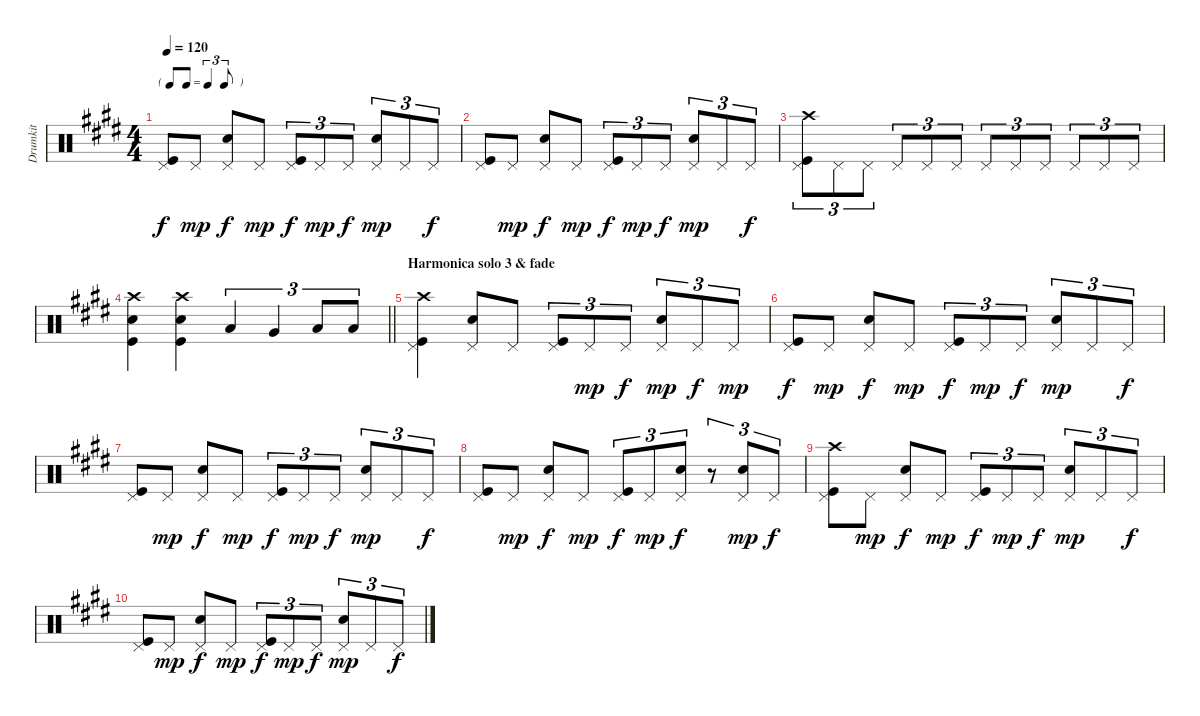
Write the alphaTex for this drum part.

\track ("Drumkit" "Drumkit") {instrument percussion}
\staff {score}
\articulation defaults
\ts (4 4)
\tf triplet8th
\tempo 120
\clef neutral
\ks e
("Pedal Hi-Hat (hit)" "Kick (hit)").8{dy f} "Pedal Hi-Hat (hit)".8{dy mp} ("Pedal Hi-Hat (hit)" "Snare (hit) 2").8{dy f} "Pedal Hi-Hat (hit)".8{dy mp} ("Pedal Hi-Hat (hit)" "Kick (hit)").8{tu (3 2) dy f} "Pedal Hi-Hat (hit)".8{tu (3 2) dy mp} "Pedal Hi-Hat (hit)".8{tu (3 2) dy f} ("Pedal Hi-Hat (hit)" "Snare (hit) 2").8{tu (3 2) dy mp} "Pedal Hi-Hat (hit)".8{tu (3 2)} "Pedal Hi-Hat (hit)".8{tu (3 2) dy f} |
("Pedal Hi-Hat (hit)" "Kick (hit)").8 "Pedal Hi-Hat (hit)".8{dy mp} ("Pedal Hi-Hat (hit)" "Snare (hit) 2").8{dy f} "Pedal Hi-Hat (hit)".8{dy mp} ("Pedal Hi-Hat (hit)" "Kick (hit)").8{tu (3 2) dy f} "Pedal Hi-Hat (hit)".8{tu (3 2) dy mp} "Pedal Hi-Hat (hit)".8{tu (3 2) dy f} ("Pedal Hi-Hat (hit)" "Snare (hit) 2").8{tu (3 2) dy mp} "Pedal Hi-Hat (hit)".8{tu (3 2)} "Pedal Hi-Hat (hit)".8{tu (3 2) dy f} |
("Crash high (hit)" "Pedal Hi-Hat (hit)" "Kick (hit)").8{tu (3 2)} "Pedal Hi-Hat (hit)".8{tu (3 2)} "Pedal Hi-Hat (hit)".8{tu (3 2)} "Pedal Hi-Hat (hit)".8{tu (3 2)} "Pedal Hi-Hat (hit)".8{tu (3 2)} "Pedal Hi-Hat (hit)".8{tu (3 2)} "Pedal Hi-Hat (hit)".8{tu (3 2)} "Pedal Hi-Hat (hit)".8{tu (3 2)} "Pedal Hi-Hat (hit)".8{tu (3 2)} "Pedal Hi-Hat (hit)".8{tu (3 2)} "Pedal Hi-Hat (hit)".8{tu (3 2)} "Pedal Hi-Hat (hit)".8{tu (3 2)} |
\barLineRight lightlight
("Crash high (hit)" "Snare (hit) 2" "Kick (hit)").4 ("Crash high (hit)" "Snare (hit) 2" "Kick (hit)").4 "Low Tom (hit)".4{tu (3 2)} "Very Low Tom (hit)".4{tu (3 2)} "Low Floor Tom (hit)".8{tu (3 2)} "Low Floor Tom (hit)".8{tu (3 2)} |
\section ("" "Harmonica solo 3 & fade")
("Crash high (hit)" "Pedal Hi-Hat (hit)" "Kick (hit)").4 ("Pedal Hi-Hat (hit)" "Snare (hit) 2").8 "Pedal Hi-Hat (hit)".8 ("Pedal Hi-Hat (hit)" "Kick (hit)").8{tu (3 2)} "Pedal Hi-Hat (hit)".8{tu (3 2) dy mp} "Pedal Hi-Hat (hit)".8{tu (3 2) dy f} ("Pedal Hi-Hat (hit)" "Snare (hit) 2").8{tu (3 2) dy mp} "Pedal Hi-Hat (hit)".8{tu (3 2) dy f} "Pedal Hi-Hat (hit)".8{tu (3 2) dy mp} |
("Pedal Hi-Hat (hit)" "Kick (hit)").8{dy f} "Pedal Hi-Hat (hit)".8{dy mp} ("Pedal Hi-Hat (hit)" "Snare (hit) 2").8{dy f} "Pedal Hi-Hat (hit)".8{dy mp} ("Pedal Hi-Hat (hit)" "Kick (hit)").8{tu (3 2) dy f} "Pedal Hi-Hat (hit)".8{tu (3 2) dy mp} "Pedal Hi-Hat (hit)".8{tu (3 2) dy f} ("Pedal Hi-Hat (hit)" "Snare (hit) 2").8{tu (3 2) dy mp} "Pedal Hi-Hat (hit)".8{tu (3 2)} "Pedal Hi-Hat (hit)".8{tu (3 2) dy f volume 10} |
("Pedal Hi-Hat (hit)" "Kick (hit)").8 "Pedal Hi-Hat (hit)".8{dy mp} ("Pedal Hi-Hat (hit)" "Snare (hit) 2").8{dy f} "Pedal Hi-Hat (hit)".8{dy mp} ("Pedal Hi-Hat (hit)" "Kick (hit)").8{tu (3 2) dy f} "Pedal Hi-Hat (hit)".8{tu (3 2) dy mp} "Pedal Hi-Hat (hit)".8{tu (3 2) dy f} ("Pedal Hi-Hat (hit)" "Snare (hit) 2").8{tu (3 2) dy mp} "Pedal Hi-Hat (hit)".8{tu (3 2)} "Pedal Hi-Hat (hit)".8{tu (3 2) dy f} |
("Pedal Hi-Hat (hit)" "Kick (hit)").8 "Pedal Hi-Hat (hit)".8{dy mp} ("Pedal Hi-Hat (hit)" "Snare (hit) 2").8{dy f} "Pedal Hi-Hat (hit)".8{dy mp} ("Pedal Hi-Hat (hit)" "Kick (hit)").8{tu (3 2) dy f} "Pedal Hi-Hat (hit)".8{tu (3 2) dy mp} ("Pedal Hi-Hat (hit)" "Snare (hit) 2").8{tu (3 2) dy f} r.8{tu (3 2)} ("Pedal Hi-Hat (hit)" "Snare (hit) 2").8{tu (3 2) dy mp} "Pedal Hi-Hat (hit)".8{tu (3 2) dy f} |
("Crash high (hit)" "Pedal Hi-Hat (hit)" "Kick (hit)").8 "Pedal Hi-Hat (hit)".8{dy mp} ("Pedal Hi-Hat (hit)" "Snare (hit) 2").8{dy f} "Pedal Hi-Hat (hit)".8{dy mp} ("Pedal Hi-Hat (hit)" "Kick (hit)").8{tu (3 2) dy f} "Pedal Hi-Hat (hit)".8{tu (3 2) dy mp} "Pedal Hi-Hat (hit)".8{tu (3 2) dy f} ("Pedal Hi-Hat (hit)" "Snare (hit) 2").8{tu (3 2) dy mp} "Pedal Hi-Hat (hit)".8{tu (3 2)} "Pedal Hi-Hat (hit)".8{tu (3 2) dy f} |
("Pedal Hi-Hat (hit)" "Kick (hit)").8 "Pedal Hi-Hat (hit)".8{dy mp} ("Pedal Hi-Hat (hit)" "Snare (hit) 2").8{dy f} "Pedal Hi-Hat (hit)".8{dy mp} ("Pedal Hi-Hat (hit)" "Kick (hit)").8{tu (3 2) dy f} "Pedal Hi-Hat (hit)".8{tu (3 2) dy mp} "Pedal Hi-Hat (hit)".8{tu (3 2) dy f} ("Pedal Hi-Hat (hit)" "Snare (hit) 2").8{tu (3 2) dy mp} "Pedal Hi-Hat (hit)".8{tu (3 2)} "Pedal Hi-Hat (hit)".8{tu (3 2) dy f volume 0}
